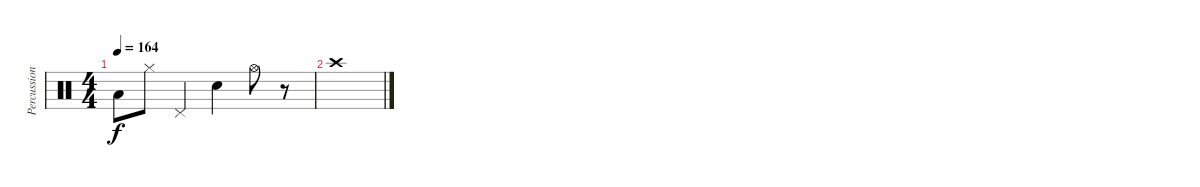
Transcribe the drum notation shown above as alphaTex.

\track ("Percussion" "Percussion") {instrument percussion}
\staff {score}
\articulation defaults
\ts (4 4)
\tempo 164
\clef neutral
\ks c "Low Tom (hit)".8{dy f volume 2} "Hi-Hat (closed)".8 "Pedal Hi-Hat (hit)".4 "Snare (hit) 2".4 "Hi-Hat (open)".8
r.8 |
"Crash high (hit)".1
